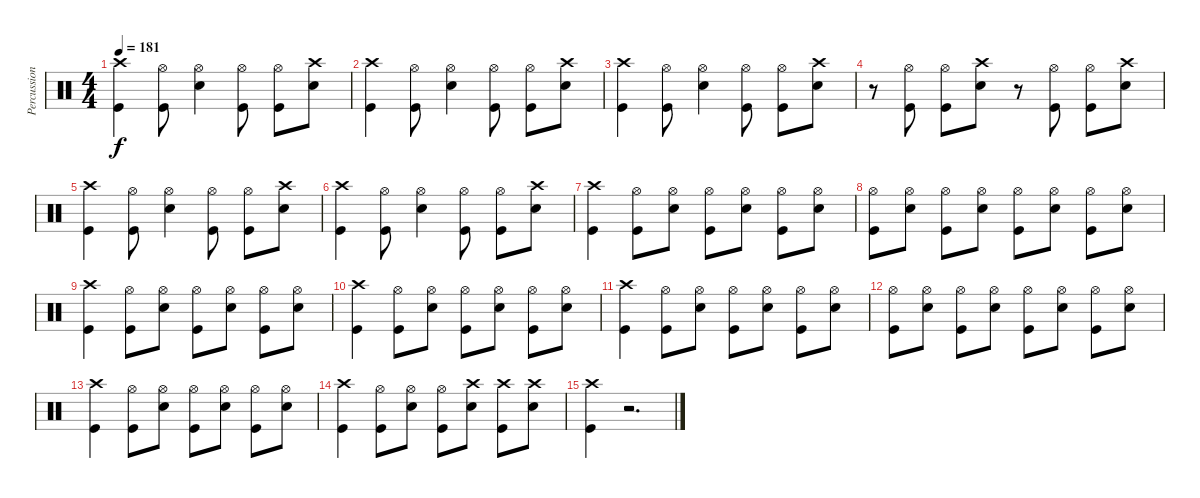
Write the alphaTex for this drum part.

\track ("Percussion" "Percussion") {instrument percussion}
\staff {score}
\articulation defaults
\ts (4 4)
\tempo 181
\clef neutral
\ks c
("Crash high (hit)" "Kick (hit)").4{dy f} ("Hi-Hat (open)" "Kick (hit)").8 ("Hi-Hat (open)" "Electric Snare (hit)").4 ("Hi-Hat (open)" "Kick (hit)").8 ("Hi-Hat (open)" "Kick (hit)").8 ("Crash high (hit)" "Electric Snare (hit)").8 |
("Crash high (hit)" "Kick (hit)").4 ("Hi-Hat (open)" "Kick (hit)").8 ("Hi-Hat (open)" "Electric Snare (hit)").4 ("Hi-Hat (open)" "Kick (hit)").8 ("Hi-Hat (open)" "Kick (hit)").8 ("Crash high (hit)" "Electric Snare (hit)").8 |
("Crash high (hit)" "Kick (hit)").4 ("Hi-Hat (open)" "Kick (hit)").8 ("Hi-Hat (open)" "Electric Snare (hit)").4 ("Hi-Hat (open)" "Kick (hit)").8 ("Hi-Hat (open)" "Kick (hit)").8 ("Crash high (hit)" "Electric Snare (hit)").8 |
r.8 ("Hi-Hat (open)" "Kick (hit)").8 ("Hi-Hat (open)" "Kick (hit)").8 ("Crash high (hit)" "Electric Snare (hit)").8 r.8 ("Hi-Hat (open)" "Kick (hit)").8 ("Hi-Hat (open)" "Kick (hit)").8 ("Crash high (hit)" "Electric Snare (hit)").8 |
("Crash high (hit)" "Kick (hit)").4 ("Hi-Hat (open)" "Kick (hit)").8 ("Hi-Hat (open)" "Electric Snare (hit)").4 ("Hi-Hat (open)" "Kick (hit)").8 ("Hi-Hat (open)" "Kick (hit)").8 ("Crash high (hit)" "Electric Snare (hit)").8 |
("Crash high (hit)" "Kick (hit)").4 ("Hi-Hat (open)" "Kick (hit)").8 ("Hi-Hat (open)" "Electric Snare (hit)").4 ("Hi-Hat (open)" "Kick (hit)").8 ("Hi-Hat (open)" "Kick (hit)").8 ("Crash high (hit)" "Electric Snare (hit)").8 |
("Crash high (hit)" "Kick (hit)").4 ("Hi-Hat (open)" "Kick (hit)").8 ("Hi-Hat (open)" "Electric Snare (hit)").8 ("Hi-Hat (open)" "Kick (hit)").8 ("Hi-Hat (open)" "Electric Snare (hit)").8 ("Hi-Hat (open)" "Kick (hit)").8 ("Hi-Hat (open)" "Electric Snare (hit)").8 |
("Hi-Hat (open)" "Kick (hit)").8 ("Hi-Hat (open)" "Electric Snare (hit)").8 ("Hi-Hat (open)" "Kick (hit)").8 ("Hi-Hat (open)" "Electric Snare (hit)").8 ("Hi-Hat (open)" "Kick (hit)").8 ("Hi-Hat (open)" "Electric Snare (hit)").8 ("Hi-Hat (open)" "Kick (hit)").8 ("Hi-Hat (open)" "Electric Snare (hit)").8 |
("Crash high (hit)" "Kick (hit)").4 ("Hi-Hat (open)" "Kick (hit)").8 ("Hi-Hat (open)" "Electric Snare (hit)").8 ("Hi-Hat (open)" "Kick (hit)").8 ("Hi-Hat (open)" "Electric Snare (hit)").8 ("Hi-Hat (open)" "Kick (hit)").8 ("Hi-Hat (open)" "Electric Snare (hit)").8 |
("Crash high (hit)" "Kick (hit)").4 ("Hi-Hat (open)" "Kick (hit)").8 ("Hi-Hat (open)" "Electric Snare (hit)").8 ("Hi-Hat (open)" "Kick (hit)").8 ("Hi-Hat (open)" "Electric Snare (hit)").8 ("Hi-Hat (open)" "Kick (hit)").8 ("Hi-Hat (open)" "Electric Snare (hit)").8 |
("Crash high (hit)" "Kick (hit)").4 ("Hi-Hat (open)" "Kick (hit)").8 ("Hi-Hat (open)" "Electric Snare (hit)").8 ("Hi-Hat (open)" "Kick (hit)").8 ("Hi-Hat (open)" "Electric Snare (hit)").8 ("Hi-Hat (open)" "Kick (hit)").8 ("Hi-Hat (open)" "Electric Snare (hit)").8 |
("Hi-Hat (open)" "Kick (hit)").8 ("Hi-Hat (open)" "Electric Snare (hit)").8 ("Hi-Hat (open)" "Kick (hit)").8 ("Hi-Hat (open)" "Electric Snare (hit)").8 ("Hi-Hat (open)" "Kick (hit)").8 ("Hi-Hat (open)" "Electric Snare (hit)").8 ("Hi-Hat (open)" "Kick (hit)").8 ("Hi-Hat (open)" "Electric Snare (hit)").8 |
("Crash high (hit)" "Kick (hit)").4 ("Hi-Hat (open)" "Kick (hit)").8 ("Hi-Hat (open)" "Electric Snare (hit)").8 ("Hi-Hat (open)" "Kick (hit)").8 ("Hi-Hat (open)" "Electric Snare (hit)").8 ("Hi-Hat (open)" "Kick (hit)").8 ("Hi-Hat (open)" "Electric Snare (hit)").8 |
("Crash high (hit)" "Kick (hit)").4 ("Hi-Hat (open)" "Kick (hit)").8 ("Hi-Hat (open)" "Electric Snare (hit)").8 ("Hi-Hat (open)" "Kick (hit)").8 ("Crash high (hit)" "Electric Snare (hit)").8 ("Crash high (hit)" "Kick (hit)").8 ("Crash high (hit)" "Electric Snare (hit)").8 |
("Crash high (hit)" "Kick (hit)").4 r.2{d}
